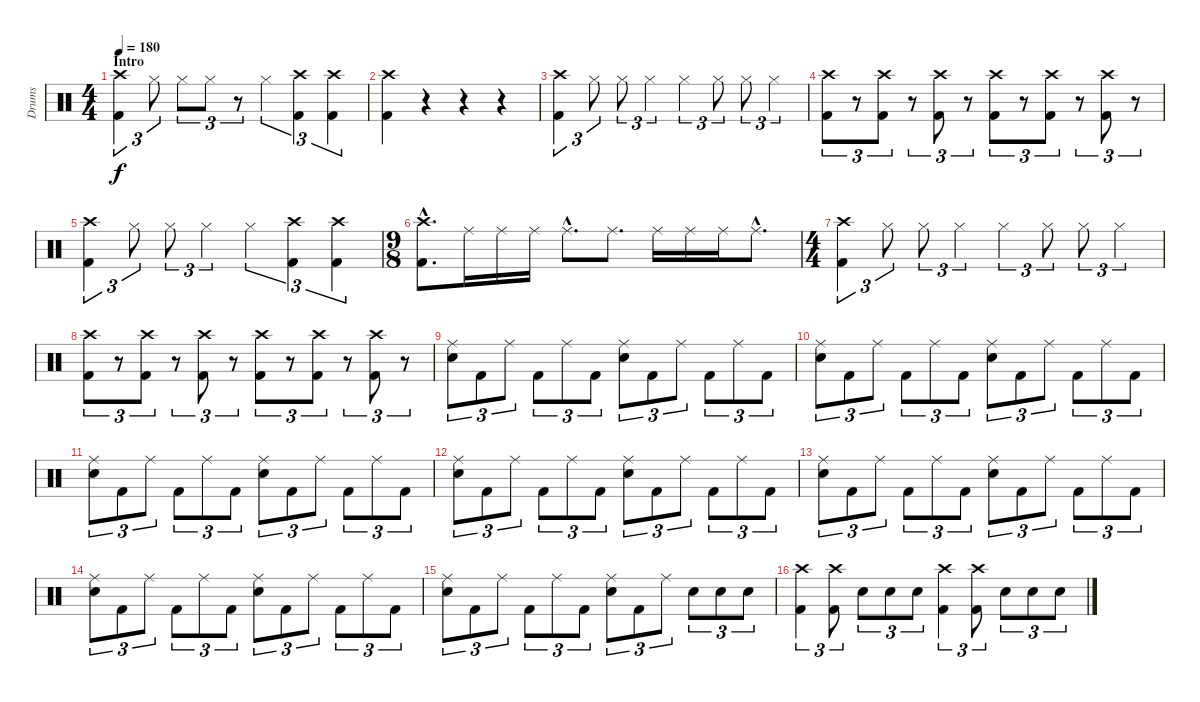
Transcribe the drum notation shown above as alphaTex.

\track ("Drums" "Drums") {instrument percussion}
\staff {score}
\articulation defaults
\ts (4 4)
\section ("" "Intro")
\tempo 180
\clef neutral
\ks c
("Crash high (hit)" "Kick (hit) 2").4{tu (3 2) dy f} "Hi-Hat (closed)".8{tu (3 2)} "Hi-Hat (closed)".8{tu (3 2)} "Hi-Hat (closed)".8{tu (3 2)} r.8{tu (3 2)} "Hi-Hat (closed)".4{tu (3 2)} ("Crash high (hit)" "Kick (hit) 2").4{tu (3 2)} ("Crash high (hit)" "Kick (hit) 2").4{tu (3 2)} |
("Crash high (hit)" "Kick (hit) 2").4 r.4 r.4 r.4 |
("Crash high (hit)" "Kick (hit) 2").4{tu (3 2)} "Hi-Hat (closed)".8{tu (3 2)} "Hi-Hat (closed)".8{tu (3 2)} "Hi-Hat (closed)".4{tu (3 2)} "Hi-Hat (closed)".4{tu (3 2)} "Hi-Hat (closed)".8{tu (3 2)} "Hi-Hat (closed)".8{tu (3 2)} "Hi-Hat (closed)".4{tu (3 2)} |
("Crash high (hit)" "Kick (hit) 2").8{tu (3 2)} r.8{tu (3 2)} ("Crash high (hit)" "Kick (hit) 2").8{tu (3 2)} r.8{tu (3 2)} ("Crash high (hit)" "Kick (hit) 2").8{tu (3 2)} r.8{tu (3 2)} ("Crash high (hit)" "Kick (hit) 2").8{tu (3 2)} r.8{tu (3 2)} ("Crash high (hit)" "Kick (hit) 2").8{tu (3 2)} r.8{tu (3 2)} ("Crash high (hit)" "Kick (hit) 2").8{tu (3 2)} r.8{tu (3 2)} |
("Crash high (hit)" "Kick (hit) 2").4{tu (3 2)} "Hi-Hat (closed)".8{tu (3 2)} "Hi-Hat (closed)".8{tu (3 2)} "Hi-Hat (closed)".4{tu (3 2)} "Hi-Hat (closed)".4{tu (3 2)} ("Crash high (hit)" "Kick (hit) 2").4{tu (3 2)} ("Crash high (hit)" "Kick (hit) 2").4{tu (3 2)} |
\ts (9 8)
("Crash high (hit)"{hac} "Kick (hit) 2"{hac}).8{d} "Ride (middle)".16 "Ride (middle)".16 "Ride (middle)".16 "Ride (middle)"{hac}.8{d} "Ride (middle)".8{d} "Ride (middle)".16 "Ride (middle)".16 "Ride (middle)".16 "Ride (middle)"{hac}.8{d} |
\ts (4 4)
("Crash high (hit)" "Kick (hit) 2").4{tu (3 2)} "Hi-Hat (closed)".8{tu (3 2)} "Hi-Hat (closed)".8{tu (3 2)} "Hi-Hat (closed)".4{tu (3 2)} "Hi-Hat (closed)".4{tu (3 2)} "Hi-Hat (closed)".8{tu (3 2)} "Hi-Hat (closed)".8{tu (3 2)} "Hi-Hat (closed)".4{tu (3 2)} |
("Crash high (hit)" "Kick (hit) 2").8{tu (3 2)} r.8{tu (3 2)} ("Crash high (hit)" "Kick (hit) 2").8{tu (3 2)} r.8{tu (3 2)} ("Crash high (hit)" "Kick (hit) 2").8{tu (3 2)} r.8{tu (3 2)} ("Crash high (hit)" "Kick (hit) 2").8{tu (3 2)} r.8{tu (3 2)} ("Crash high (hit)" "Kick (hit) 2").8{tu (3 2)} r.8{tu (3 2)} ("Crash high (hit)" "Kick (hit) 2").8{tu (3 2)} r.8{tu (3 2)} |
("Ride (middle)" "Electric Snare (hit)").8{tu (3 2)} "Kick (hit) 2".8{tu (3 2)} "Ride (middle)".8{tu (3 2)} "Kick (hit) 2".8{tu (3 2)} "Ride (middle)".8{tu (3 2)} "Kick (hit) 2".8{tu (3 2)} ("Ride (middle)" "Electric Snare (hit)").8{tu (3 2)} "Kick (hit) 2".8{tu (3 2)} "Ride (middle)".8{tu (3 2)} "Kick (hit) 2".8{tu (3 2)} "Ride (middle)".8{tu (3 2)} "Kick (hit) 2".8{tu (3 2)} |
("Ride (middle)" "Electric Snare (hit)").8{tu (3 2)} "Kick (hit) 2".8{tu (3 2)} "Ride (middle)".8{tu (3 2)} "Kick (hit) 2".8{tu (3 2)} "Ride (middle)".8{tu (3 2)} "Kick (hit) 2".8{tu (3 2)} ("Ride (middle)" "Electric Snare (hit)").8{tu (3 2)} "Kick (hit) 2".8{tu (3 2)} "Ride (middle)".8{tu (3 2)} "Kick (hit) 2".8{tu (3 2)} "Ride (middle)".8{tu (3 2)} "Kick (hit) 2".8{tu (3 2)} |
("Ride (middle)" "Electric Snare (hit)").8{tu (3 2)} "Kick (hit) 2".8{tu (3 2)} "Ride (middle)".8{tu (3 2)} "Kick (hit) 2".8{tu (3 2)} "Ride (middle)".8{tu (3 2)} "Kick (hit) 2".8{tu (3 2)} ("Ride (middle)" "Electric Snare (hit)").8{tu (3 2)} "Kick (hit) 2".8{tu (3 2)} "Ride (middle)".8{tu (3 2)} "Kick (hit) 2".8{tu (3 2)} "Ride (middle)".8{tu (3 2)} "Kick (hit) 2".8{tu (3 2)} |
("Ride (middle)" "Electric Snare (hit)").8{tu (3 2)} "Kick (hit) 2".8{tu (3 2)} "Ride (middle)".8{tu (3 2)} "Kick (hit) 2".8{tu (3 2)} "Ride (middle)".8{tu (3 2)} "Kick (hit) 2".8{tu (3 2)} ("Ride (middle)" "Electric Snare (hit)").8{tu (3 2)} "Kick (hit) 2".8{tu (3 2)} "Ride (middle)".8{tu (3 2)} "Kick (hit) 2".8{tu (3 2)} "Ride (middle)".8{tu (3 2)} "Kick (hit) 2".8{tu (3 2)} |
("Ride (middle)" "Electric Snare (hit)").8{tu (3 2)} "Kick (hit) 2".8{tu (3 2)} "Ride (middle)".8{tu (3 2)} "Kick (hit) 2".8{tu (3 2)} "Ride (middle)".8{tu (3 2)} "Kick (hit) 2".8{tu (3 2)} ("Ride (middle)" "Electric Snare (hit)").8{tu (3 2)} "Kick (hit) 2".8{tu (3 2)} "Ride (middle)".8{tu (3 2)} "Kick (hit) 2".8{tu (3 2)} "Ride (middle)".8{tu (3 2)} "Kick (hit) 2".8{tu (3 2)} |
("Ride (middle)" "Electric Snare (hit)").8{tu (3 2)} "Kick (hit) 2".8{tu (3 2)} "Ride (middle)".8{tu (3 2)} "Kick (hit) 2".8{tu (3 2)} "Ride (middle)".8{tu (3 2)} "Kick (hit) 2".8{tu (3 2)} ("Ride (middle)" "Electric Snare (hit)").8{tu (3 2)} "Kick (hit) 2".8{tu (3 2)} "Ride (middle)".8{tu (3 2)} "Kick (hit) 2".8{tu (3 2)} "Ride (middle)".8{tu (3 2)} "Kick (hit) 2".8{tu (3 2)} |
("Ride (middle)" "Electric Snare (hit)").8{tu (3 2)} "Kick (hit) 2".8{tu (3 2)} "Ride (middle)".8{tu (3 2)} "Kick (hit) 2".8{tu (3 2)} "Ride (middle)".8{tu (3 2)} "Kick (hit) 2".8{tu (3 2)} ("Ride (middle)" "Electric Snare (hit)").8{tu (3 2)} "Kick (hit) 2".8{tu (3 2)} "Ride (middle)".8{tu (3 2)} "Electric Snare (hit)".8{tu (3 2)} "Electric Snare (hit)".8{tu (3 2)} "Electric Snare (hit)".8{tu (3 2)} |
("Crash high (hit)" "Kick (hit) 2").4{tu (3 2)} ("Crash high (hit)" "Kick (hit) 2").8{tu (3 2)} "Electric Snare (hit)".8{tu (3 2)} "Electric Snare (hit)".8{tu (3 2)} "Electric Snare (hit)".8{tu (3 2)} ("Crash high (hit)" "Kick (hit) 2").4{tu (3 2)} ("Crash high (hit)" "Kick (hit) 2").8{tu (3 2)} "Electric Snare (hit)".8{tu (3 2)} "Electric Snare (hit)".8{tu (3 2)} "Electric Snare (hit)".8{tu (3 2)}
